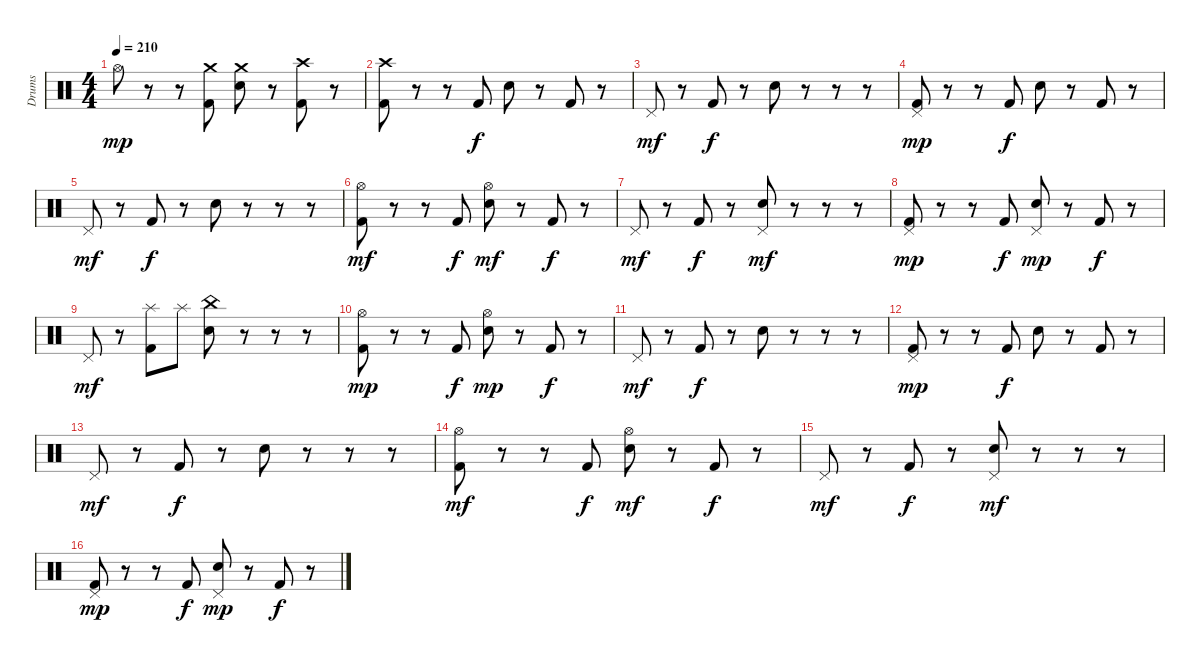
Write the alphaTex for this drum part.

\track ("Drums" "Drums") {instrument percussion}
\staff {score}
\articulation defaults
\ts (4 4)
\tempo 210
\clef neutral
\ks c "Hi-Hat (open)".8{dy mp}
r.8 r.8 ("Kick (hit) 2" "Crash medium (hit)").8 ("Snare (hit) 2" "Crash medium (hit)").8 r.8 ("Kick (hit) 2" "Crash high (hit)").8 r.8 |
("Kick (hit) 2" "Crash high (hit)").8 r.8 r.8 "Kick (hit) 2".8{dy f} "Snare (hit) 2".8 r.8 "Kick (hit) 2".8 r.8 |
"Pedal Hi-Hat (hit)".8{dy mf} r.8 "Kick (hit) 2".8{dy f} r.8 "Snare (hit) 2".8 r.8 r.8 r.8 |
("Kick (hit) 2" "Pedal Hi-Hat (hit)").8{dy mp} r.8 r.8 "Kick (hit) 2".8{dy f} "Snare (hit) 2".8 r.8 "Kick (hit) 2".8 r.8 |
"Pedal Hi-Hat (hit)".8{dy mf} r.8 "Kick (hit) 2".8{dy f} r.8 "Snare (hit) 2".8 r.8 r.8 r.8 |
("Kick (hit) 2" "Hi-Hat (open)").8{dy mf} r.8 r.8 "Kick (hit) 2".8{dy f} ("Snare (hit) 2" "Hi-Hat (open)").8{dy mf} r.8 "Kick (hit) 2".8{dy f} r.8 |
"Pedal Hi-Hat (hit)".8{dy mf} r.8 "Kick (hit) 2".8{dy f} r.8 ("Snare (hit) 2" "Pedal Hi-Hat (hit)").8{dy mf} r.8 r.8 r.8 |
("Kick (hit) 2" "Pedal Hi-Hat (hit)").8{dy mp} r.8 r.8 "Kick (hit) 2".8{dy f} ("Snare (hit) 2" "Pedal Hi-Hat (hit)").8{dy mp} r.8 "Kick (hit) 2".8{dy f} r.8 |
"Pedal Hi-Hat (hit)".8{dy mf} r.8 ("Kick (hit) 2" "Splash (hit)").8 "Splash (hit)".8 ("Snare (hit) 2" "China (hit)").8 r.8 r.8 r.8 |
("Kick (hit) 2" "Hi-Hat (open)").8{dy mp} r.8 r.8 "Kick (hit) 2".8{dy f} ("Snare (hit) 2" "Hi-Hat (open)").8{dy mp} r.8 "Kick (hit) 2".8{dy f} r.8 |
"Pedal Hi-Hat (hit)".8{dy mf} r.8 "Kick (hit) 2".8{dy f} r.8 "Snare (hit) 2".8 r.8 r.8 r.8 |
("Kick (hit) 2" "Pedal Hi-Hat (hit)").8{dy mp} r.8 r.8 "Kick (hit) 2".8{dy f} "Snare (hit) 2".8 r.8 "Kick (hit) 2".8 r.8 |
"Pedal Hi-Hat (hit)".8{dy mf} r.8 "Kick (hit) 2".8{dy f} r.8 "Snare (hit) 2".8 r.8 r.8 r.8 |
("Kick (hit) 2" "Hi-Hat (open)").8{dy mf} r.8 r.8 "Kick (hit) 2".8{dy f} ("Snare (hit) 2" "Hi-Hat (open)").8{dy mf} r.8 "Kick (hit) 2".8{dy f} r.8 |
"Pedal Hi-Hat (hit)".8{dy mf} r.8 "Kick (hit) 2".8{dy f} r.8 ("Snare (hit) 2" "Pedal Hi-Hat (hit)").8{dy mf} r.8 r.8 r.8 |
("Kick (hit) 2" "Pedal Hi-Hat (hit)").8{dy mp} r.8 r.8 "Kick (hit) 2".8{dy f} ("Snare (hit) 2" "Pedal Hi-Hat (hit)").8{dy mp} r.8 "Kick (hit) 2".8{dy f} r.8
